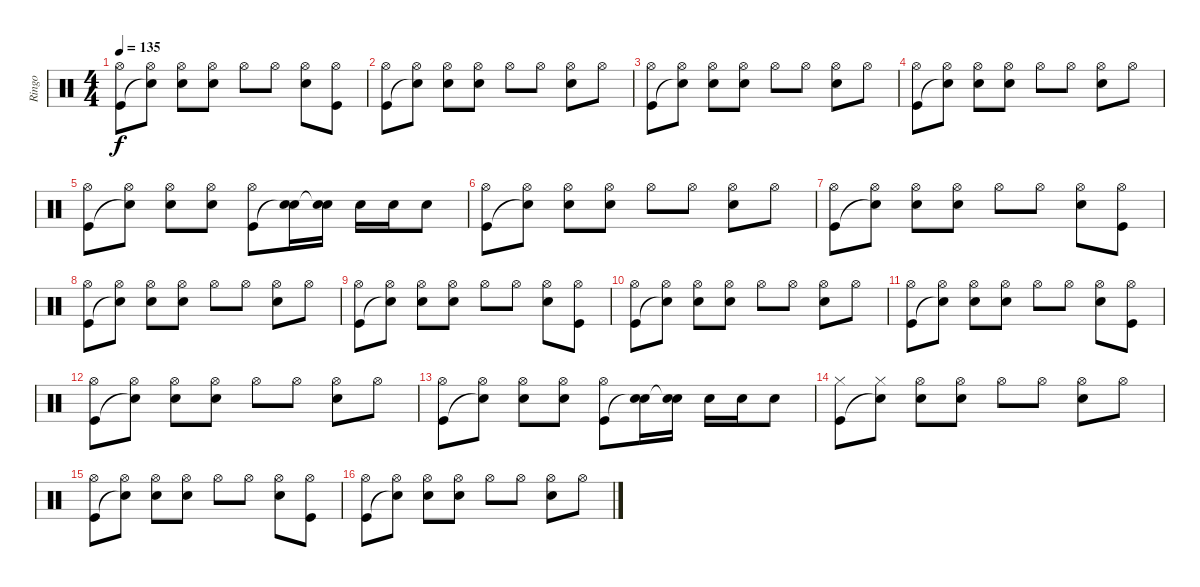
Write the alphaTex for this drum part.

\track ("Ringo" "Ringo") {instrument percussion}
\staff {score}
\articulation defaults
\ts (4 4)
\tempo 135
\clef neutral
\ks c
("Hi-Hat (open)" "Kick (hit)").8{dy f} ("Hi-Hat (open)" "Snare (hit)"{t}).8 ("Hi-Hat (open)" "Snare (hit) 2").8 ("Hi-Hat (open)" "Snare (hit) 2").8 "Hi-Hat (open)".8 "Hi-Hat (open)".8 ("Hi-Hat (open)" "Snare (hit) 2").8 ("Hi-Hat (open)" "Kick (hit)").8 |
("Hi-Hat (open)" "Kick (hit)").8 ("Hi-Hat (open)" "Snare (hit)"{t}).8 ("Hi-Hat (open)" "Snare (hit) 2").8 ("Hi-Hat (open)" "Snare (hit) 2").8 "Hi-Hat (open)".8 "Hi-Hat (open)".8 ("Hi-Hat (open)" "Snare (hit) 2").8 "Hi-Hat (open)".8 |
("Hi-Hat (open)" "Kick (hit)").8 ("Hi-Hat (open)" "Snare (hit)"{t}).8 ("Hi-Hat (open)" "Snare (hit) 2").8 ("Hi-Hat (open)" "Snare (hit) 2").8 "Hi-Hat (open)".8 "Hi-Hat (open)".8 ("Hi-Hat (open)" "Snare (hit) 2").8 "Hi-Hat (open)".8 |
("Hi-Hat (open)" "Kick (hit)").8 ("Hi-Hat (open)" "Snare (hit)"{t}).8 ("Hi-Hat (open)" "Snare (hit) 2").8 ("Hi-Hat (open)" "Snare (hit) 2").8 "Hi-Hat (open)".8 "Hi-Hat (open)".8 ("Hi-Hat (open)" "Snare (hit) 2").8 "Hi-Hat (open)".8 |
("Hi-Hat (open)" "Kick (hit)").8 ("Hi-Hat (open)" "Snare (hit)"{t}).8 ("Hi-Hat (open)" "Snare (hit) 2").8 ("Hi-Hat (open)" "Snare (hit) 2").8 ("Hi-Hat (open)" "Kick (hit)").8 ("Snare (hit) 2" "Snare (hit)"{t}).16 ("Snare (hit) 2" "Snare (hit)"{t}).16 "Snare (hit) 2".16 "Snare (hit) 2".16 "Snare (hit) 2".8 |
("Hi-Hat (open)" "Kick (hit)").8 ("Hi-Hat (open)" "Snare (hit)"{t}).8 ("Hi-Hat (open)" "Snare (hit) 2").8 ("Hi-Hat (open)" "Snare (hit) 2").8 "Hi-Hat (open)".8 "Hi-Hat (open)".8 ("Hi-Hat (open)" "Snare (hit) 2").8 "Hi-Hat (open)".8 |
("Hi-Hat (open)" "Kick (hit)").8 ("Hi-Hat (open)" "Snare (hit)"{t}).8 ("Hi-Hat (open)" "Snare (hit) 2").8 ("Hi-Hat (open)" "Snare (hit) 2").8 "Hi-Hat (open)".8 "Hi-Hat (open)".8 ("Hi-Hat (open)" "Snare (hit) 2").8 ("Hi-Hat (open)" "Kick (hit)").8 |
("Hi-Hat (open)" "Kick (hit)").8 ("Hi-Hat (open)" "Snare (hit)"{t}).8 ("Hi-Hat (open)" "Snare (hit) 2").8 ("Hi-Hat (open)" "Snare (hit) 2").8 "Hi-Hat (open)".8 "Hi-Hat (open)".8 ("Hi-Hat (open)" "Snare (hit) 2").8 "Hi-Hat (open)".8 |
("Hi-Hat (open)" "Kick (hit)").8 ("Hi-Hat (open)" "Snare (hit)"{t}).8 ("Hi-Hat (open)" "Snare (hit) 2").8 ("Hi-Hat (open)" "Snare (hit) 2").8 "Hi-Hat (open)".8 "Hi-Hat (open)".8 ("Hi-Hat (open)" "Snare (hit) 2").8 ("Hi-Hat (open)" "Kick (hit)").8 |
("Hi-Hat (open)" "Kick (hit)").8 ("Hi-Hat (open)" "Snare (hit)"{t}).8 ("Hi-Hat (open)" "Snare (hit) 2").8 ("Hi-Hat (open)" "Snare (hit) 2").8 "Hi-Hat (open)".8 "Hi-Hat (open)".8 ("Hi-Hat (open)" "Snare (hit) 2").8 "Hi-Hat (open)".8 |
("Hi-Hat (open)" "Kick (hit)").8 ("Hi-Hat (open)" "Snare (hit)"{t}).8 ("Hi-Hat (open)" "Snare (hit) 2").8 ("Hi-Hat (open)" "Snare (hit) 2").8 "Hi-Hat (open)".8 "Hi-Hat (open)".8 ("Hi-Hat (open)" "Snare (hit) 2").8 ("Hi-Hat (open)" "Kick (hit)").8 |
("Hi-Hat (open)" "Kick (hit)").8 ("Hi-Hat (open)" "Snare (hit)"{t}).8 ("Hi-Hat (open)" "Snare (hit) 2").8 ("Hi-Hat (open)" "Snare (hit) 2").8 "Hi-Hat (open)".8 "Hi-Hat (open)".8 ("Hi-Hat (open)" "Snare (hit) 2").8 "Hi-Hat (open)".8 |
("Hi-Hat (open)" "Kick (hit)").8 ("Hi-Hat (open)" "Snare (hit)"{t}).8 ("Hi-Hat (open)" "Snare (hit) 2").8 ("Hi-Hat (open)" "Snare (hit) 2").8 ("Hi-Hat (open)" "Kick (hit)").8 ("Snare (hit) 2" "Snare (hit)"{t}).16 ("Snare (hit) 2" "Snare (hit)"{t}).16 "Snare (hit) 2".16 "Snare (hit) 2".16 "Snare (hit) 2".8 |
("Hi-Hat (closed)" "Kick (hit)").8 ("Hi-Hat (closed)" "Snare (hit)"{t}).8 ("Hi-Hat (open)" "Snare (hit) 2").8 ("Hi-Hat (open)" "Snare (hit) 2").8 "Hi-Hat (open)".8 "Hi-Hat (open)".8 ("Hi-Hat (open)" "Snare (hit) 2").8 "Hi-Hat (open)".8 |
("Hi-Hat (open)" "Kick (hit)").8 ("Hi-Hat (open)" "Snare (hit)"{t}).8 ("Hi-Hat (open)" "Snare (hit) 2").8 ("Hi-Hat (open)" "Snare (hit) 2").8 "Hi-Hat (open)".8 "Hi-Hat (open)".8 ("Hi-Hat (open)" "Snare (hit) 2").8 ("Hi-Hat (open)" "Kick (hit)").8 |
("Hi-Hat (open)" "Kick (hit)").8 ("Hi-Hat (open)" "Snare (hit)"{t}).8 ("Hi-Hat (open)" "Snare (hit) 2").8 ("Hi-Hat (open)" "Snare (hit) 2").8 "Hi-Hat (open)".8 "Hi-Hat (open)".8 ("Hi-Hat (open)" "Snare (hit) 2").8 "Hi-Hat (open)".8
